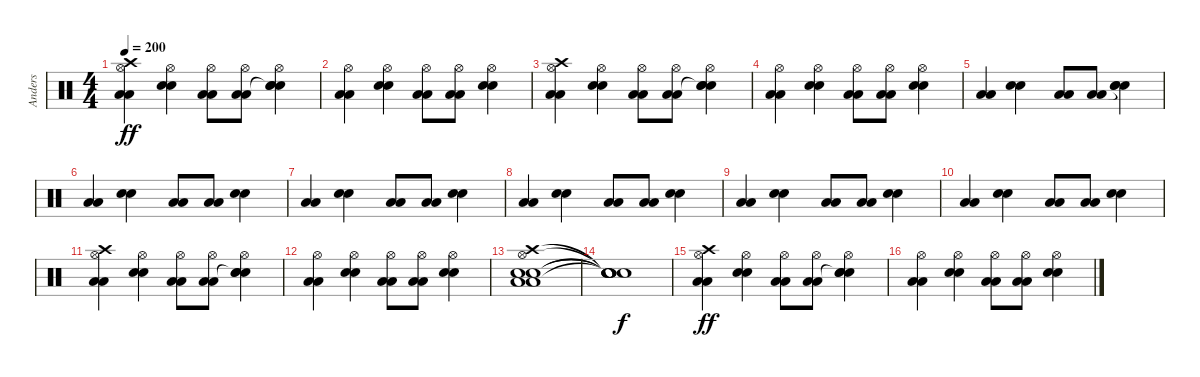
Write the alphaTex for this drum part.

\track ("Anders" "Anders") {instrument percussion}
\staff {score}
\articulation defaults
\ts (4 4)
\tempo 200
\clef neutral
\ks c
("Hi-Hat (open)" "Crash high (hit)" "Low Floor Tom (hit)" "Low Floor Tom (hit)").4{dy ff} ("Hi-Hat (open)" "Electric Snare (hit)" "Electric Snare (hit)").4 ("Hi-Hat (open)" "Low Floor Tom (hit)" "Low Floor Tom (hit)").8 ("Hi-Hat (open)" "Low Floor Tom (hit)" "Low Floor Tom (hit)").8 ("Hi-Hat (open)" "Snare (hit)"{t} "Electric Snare (hit)" "Electric Snare (hit)").4 |
("Hi-Hat (open)" "Low Floor Tom (hit)" "Low Floor Tom (hit)").4 ("Hi-Hat (open)" "Electric Snare (hit)" "Electric Snare (hit)").4 ("Hi-Hat (open)" "Low Floor Tom (hit)" "Low Floor Tom (hit)").8 ("Hi-Hat (open)" "Low Floor Tom (hit)" "Low Floor Tom (hit)").8 ("Hi-Hat (open)" "Electric Snare (hit)" "Electric Snare (hit)").4 |
("Hi-Hat (open)" "Crash high (hit)" "Low Floor Tom (hit)" "Low Floor Tom (hit)").4 ("Hi-Hat (open)" "Electric Snare (hit)" "Electric Snare (hit)").4 ("Hi-Hat (open)" "Low Floor Tom (hit)" "Low Floor Tom (hit)").8 ("Hi-Hat (open)" "Low Floor Tom (hit)" "Low Floor Tom (hit)").8 ("Hi-Hat (open)" "Snare (hit)"{t} "Electric Snare (hit)" "Electric Snare (hit)").4 |
("Hi-Hat (open)" "Low Floor Tom (hit)" "Low Floor Tom (hit)").4 ("Hi-Hat (open)" "Electric Snare (hit)" "Electric Snare (hit)").4 ("Hi-Hat (open)" "Low Floor Tom (hit)" "Low Floor Tom (hit)").8 ("Hi-Hat (open)" "Low Floor Tom (hit)" "Low Floor Tom (hit)").8 ("Hi-Hat (open)" "Electric Snare (hit)" "Electric Snare (hit)").4 |
("Low Floor Tom (hit)" "Low Floor Tom (hit)").4 ("Electric Snare (hit)" "Electric Snare (hit)").4 ("Low Floor Tom (hit)" "Low Floor Tom (hit)").8 ("Low Floor Tom (hit)" "Low Floor Tom (hit)").8 ("Snare (hit)"{t} "Electric Snare (hit)" "Electric Snare (hit)").4 |
("Low Floor Tom (hit)" "Low Floor Tom (hit)").4 ("Electric Snare (hit)" "Electric Snare (hit)").4 ("Low Floor Tom (hit)" "Low Floor Tom (hit)").8 ("Low Floor Tom (hit)" "Low Floor Tom (hit)").8 ("Electric Snare (hit)" "Electric Snare (hit)").4 |
("Low Floor Tom (hit)" "Low Floor Tom (hit)").4 ("Electric Snare (hit)" "Electric Snare (hit)").4 ("Low Floor Tom (hit)" "Low Floor Tom (hit)").8 ("Low Floor Tom (hit)" "Low Floor Tom (hit)").8 ("Electric Snare (hit)" "Electric Snare (hit)").4 |
("Low Floor Tom (hit)" "Low Floor Tom (hit)").4 ("Electric Snare (hit)" "Electric Snare (hit)").4 ("Low Floor Tom (hit)" "Low Floor Tom (hit)").8 ("Low Floor Tom (hit)" "Low Floor Tom (hit)").8 ("Electric Snare (hit)" "Electric Snare (hit)").4 |
("Low Floor Tom (hit)" "Low Floor Tom (hit)").4 ("Electric Snare (hit)" "Electric Snare (hit)").4 ("Low Floor Tom (hit)" "Low Floor Tom (hit)").8 ("Low Floor Tom (hit)" "Low Floor Tom (hit)").8 ("Electric Snare (hit)" "Electric Snare (hit)").4 |
("Low Floor Tom (hit)" "Low Floor Tom (hit)").4 ("Electric Snare (hit)" "Electric Snare (hit)").4 ("Low Floor Tom (hit)" "Low Floor Tom (hit)").8 ("Low Floor Tom (hit)" "Low Floor Tom (hit)").8 ("Electric Snare (hit)" "Electric Snare (hit)").4 |
("Hi-Hat (open)" "Crash high (hit)" "Low Floor Tom (hit)" "Low Floor Tom (hit)").4 ("Hi-Hat (open)" "Electric Snare (hit)" "Electric Snare (hit)").4 ("Hi-Hat (open)" "Low Floor Tom (hit)" "Low Floor Tom (hit)").8 ("Hi-Hat (open)" "Low Floor Tom (hit)" "Low Floor Tom (hit)").8 ("Hi-Hat (open)" "Snare (hit)"{t} "Electric Snare (hit)" "Electric Snare (hit)").4 |
("Hi-Hat (open)" "Low Floor Tom (hit)" "Low Floor Tom (hit)").4 ("Hi-Hat (open)" "Electric Snare (hit)" "Electric Snare (hit)").4 ("Hi-Hat (open)" "Low Floor Tom (hit)" "Low Floor Tom (hit)").8 ("Hi-Hat (open)" "Low Floor Tom (hit)" "Low Floor Tom (hit)").8 ("Hi-Hat (open)" "Electric Snare (hit)" "Electric Snare (hit)").4 |
("Hi-Hat (open)" "Crash high (hit)" "Electric Snare (hit)" "Electric Snare (hit)" "Low Floor Tom (hit)" "Low Floor Tom (hit)").1 |
("Snare (hit)"{t} "Snare (hit)"{t} "Snare (hit)"{t} "Snare (hit)"{t} "Snare (hit)"{t}).1{dy f} |
("Hi-Hat (open)" "Crash high (hit)" "Low Floor Tom (hit)" "Low Floor Tom (hit)").4{dy ff} ("Hi-Hat (open)" "Electric Snare (hit)" "Electric Snare (hit)").4 ("Hi-Hat (open)" "Low Floor Tom (hit)" "Low Floor Tom (hit)").8 ("Hi-Hat (open)" "Low Floor Tom (hit)" "Low Floor Tom (hit)").8 ("Hi-Hat (open)" "Snare (hit)"{t} "Electric Snare (hit)" "Electric Snare (hit)").4 |
("Hi-Hat (open)" "Low Floor Tom (hit)" "Low Floor Tom (hit)").4 ("Hi-Hat (open)" "Electric Snare (hit)" "Electric Snare (hit)").4 ("Hi-Hat (open)" "Low Floor Tom (hit)" "Low Floor Tom (hit)").8 ("Hi-Hat (open)" "Low Floor Tom (hit)" "Low Floor Tom (hit)").8 ("Hi-Hat (open)" "Electric Snare (hit)" "Electric Snare (hit)").4
